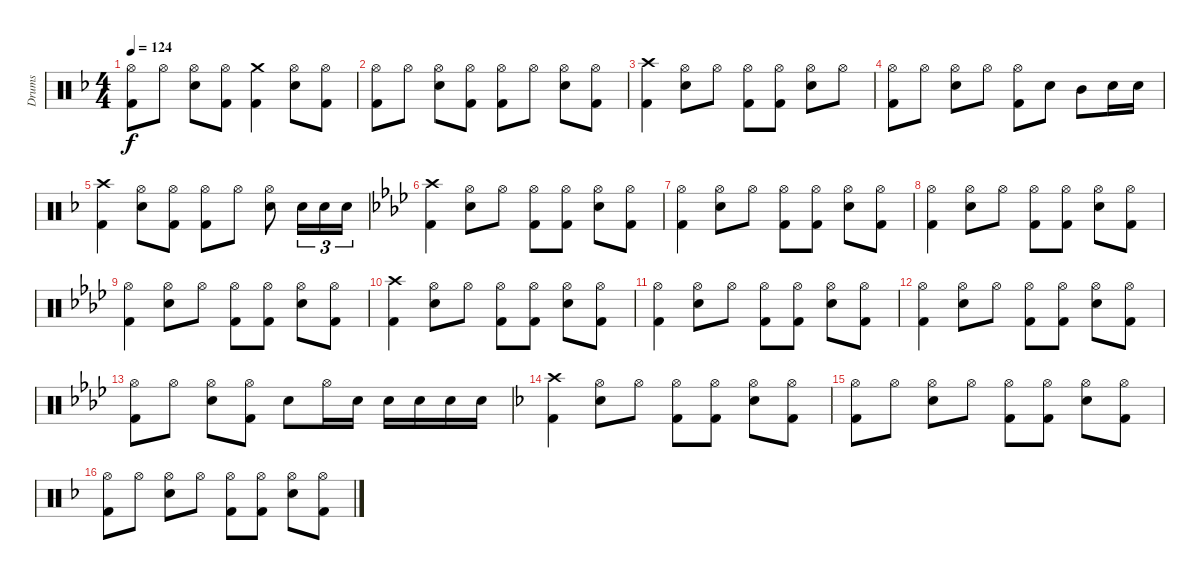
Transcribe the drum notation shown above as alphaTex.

\track ("Drums" "Drums") {instrument percussion}
\staff {score}
\articulation defaults
\ts (4 4)
\tempo 124
\clef neutral
\ks dminor
("Kick (hit) 2" "Hi-Hat (open)").8{dy f} "Hi-Hat (open)".8 ("Snare (hit) 2" "Hi-Hat (open)").8 ("Kick (hit) 2" "Hi-Hat (open)").8 ("Kick (hit) 2" "Crash medium (hit)").4 ("Snare (hit) 2" "Hi-Hat (open)").8 ("Kick (hit) 2" "Hi-Hat (open)").8 |
("Kick (hit) 2" "Hi-Hat (open)").8 "Hi-Hat (open)".8 ("Snare (hit) 2" "Hi-Hat (open)").8 ("Kick (hit) 2" "Hi-Hat (open)").8 ("Kick (hit) 2" "Hi-Hat (open)").8 "Hi-Hat (open)".8 ("Snare (hit) 2" "Hi-Hat (open)").8 ("Kick (hit) 2" "Hi-Hat (open)").8 |
("Kick (hit) 2" "Crash high (hit)").4 ("Snare (hit) 2" "Hi-Hat (open)").8 "Hi-Hat (open)".8 ("Kick (hit) 2" "Hi-Hat (open)").8 ("Kick (hit) 2" "Hi-Hat (open)").8 ("Snare (hit) 2" "Hi-Hat (open)").8 "Hi-Hat (open)".8 |
("Kick (hit) 2" "Hi-Hat (open)").8 "Hi-Hat (open)".8 ("Snare (hit) 2" "Hi-Hat (open)").8 "Hi-Hat (open)".8 ("Kick (hit) 2" "Hi-Hat (open)").8 "Snare (hit) 2".8 "Mid Tom (hit)".8 "Snare (hit) 2".16 "Snare (hit) 2".16 |
("Kick (hit) 2" "Crash high (hit)").4 ("Snare (hit) 2" "Hi-Hat (open)").8 ("Kick (hit) 2" "Hi-Hat (open)").8 ("Kick (hit) 2" "Hi-Hat (open)").8 "Hi-Hat (open)".8 ("Snare (hit) 2" "Hi-Hat (open)").8 "Snare (hit) 2".16{tu (3 2)} "Snare (hit) 2".16{tu (3 2)} "Snare (hit) 2".16{tu (3 2)} |
\ks fminor
("Kick (hit) 2" "Crash high (hit)").4 ("Snare (hit) 2" "Hi-Hat (open)").8 "Hi-Hat (open)".8 ("Kick (hit) 2" "Hi-Hat (open)").8 ("Kick (hit) 2" "Hi-Hat (open)").8 ("Snare (hit) 2" "Hi-Hat (open)").8 ("Kick (hit) 2" "Hi-Hat (open)").8 |
("Kick (hit) 2" "Hi-Hat (open)").4 ("Snare (hit) 2" "Hi-Hat (open)").8 "Hi-Hat (open)".8 ("Kick (hit) 2" "Hi-Hat (open)").8 ("Kick (hit) 2" "Hi-Hat (open)").8 ("Snare (hit) 2" "Hi-Hat (open)").8 ("Kick (hit) 2" "Hi-Hat (open)").8 |
("Kick (hit) 2" "Hi-Hat (open)").4 ("Snare (hit) 2" "Hi-Hat (open)").8 "Hi-Hat (open)".8 ("Kick (hit) 2" "Hi-Hat (open)").8 ("Kick (hit) 2" "Hi-Hat (open)").8 ("Snare (hit) 2" "Hi-Hat (open)").8 ("Kick (hit) 2" "Hi-Hat (open)").8 |
("Kick (hit) 2" "Hi-Hat (open)").4 ("Snare (hit) 2" "Hi-Hat (open)").8 "Hi-Hat (open)".8 ("Kick (hit) 2" "Hi-Hat (open)").8 ("Kick (hit) 2" "Hi-Hat (open)").8 ("Snare (hit) 2" "Hi-Hat (open)").8 ("Kick (hit) 2" "Hi-Hat (open)").8 |
("Kick (hit) 2" "Crash high (hit)").4 ("Snare (hit) 2" "Hi-Hat (open)").8 "Hi-Hat (open)".8 ("Kick (hit) 2" "Hi-Hat (open)").8 ("Kick (hit) 2" "Hi-Hat (open)").8 ("Snare (hit) 2" "Hi-Hat (open)").8 ("Kick (hit) 2" "Hi-Hat (open)").8 |
("Kick (hit) 2" "Hi-Hat (open)").4 ("Snare (hit) 2" "Hi-Hat (open)").8 "Hi-Hat (open)".8 ("Kick (hit) 2" "Hi-Hat (open)").8 ("Kick (hit) 2" "Hi-Hat (open)").8 ("Snare (hit) 2" "Hi-Hat (open)").8 ("Kick (hit) 2" "Hi-Hat (open)").8 |
("Kick (hit) 2" "Hi-Hat (open)").4 ("Snare (hit) 2" "Hi-Hat (open)").8 "Hi-Hat (open)".8 ("Kick (hit) 2" "Hi-Hat (open)").8 ("Kick (hit) 2" "Hi-Hat (open)").8 ("Snare (hit) 2" "Hi-Hat (open)").8 ("Kick (hit) 2" "Hi-Hat (open)").8 |
("Kick (hit) 2" "Hi-Hat (open)").8 "Hi-Hat (open)".8 ("Snare (hit) 2" "Hi-Hat (open)").8 ("Kick (hit) 2" "Hi-Hat (open)").8 "Snare (hit) 2".8 "Hi-Hat (open)".16 "Snare (hit) 2".16 "Snare (hit) 2".16 "Snare (hit) 2".16 "Snare (hit) 2".16 "Snare (hit) 2".16 |
\ks dminor
("Kick (hit) 2" "Crash high (hit)").4 ("Snare (hit) 2" "Hi-Hat (open)").8 "Hi-Hat (open)".8 ("Kick (hit) 2" "Hi-Hat (open)").8 ("Kick (hit) 2" "Hi-Hat (open)").8 ("Snare (hit) 2" "Hi-Hat (open)").8 ("Kick (hit) 2" "Hi-Hat (open)").8 |
("Kick (hit) 2" "Hi-Hat (open)").8 "Hi-Hat (open)".8 ("Snare (hit) 2" "Hi-Hat (open)").8 "Hi-Hat (open)".8 ("Kick (hit) 2" "Hi-Hat (open)").8 ("Kick (hit) 2" "Hi-Hat (open)").8 ("Snare (hit) 2" "Hi-Hat (open)").8 ("Kick (hit) 2" "Hi-Hat (open)").8 |
("Kick (hit) 2" "Hi-Hat (open)").8 "Hi-Hat (open)".8 ("Snare (hit) 2" "Hi-Hat (open)").8 "Hi-Hat (open)".8 ("Kick (hit) 2" "Hi-Hat (open)").8 ("Kick (hit) 2" "Hi-Hat (open)").8 ("Snare (hit) 2" "Hi-Hat (open)").8 ("Kick (hit) 2" "Hi-Hat (open)").8
